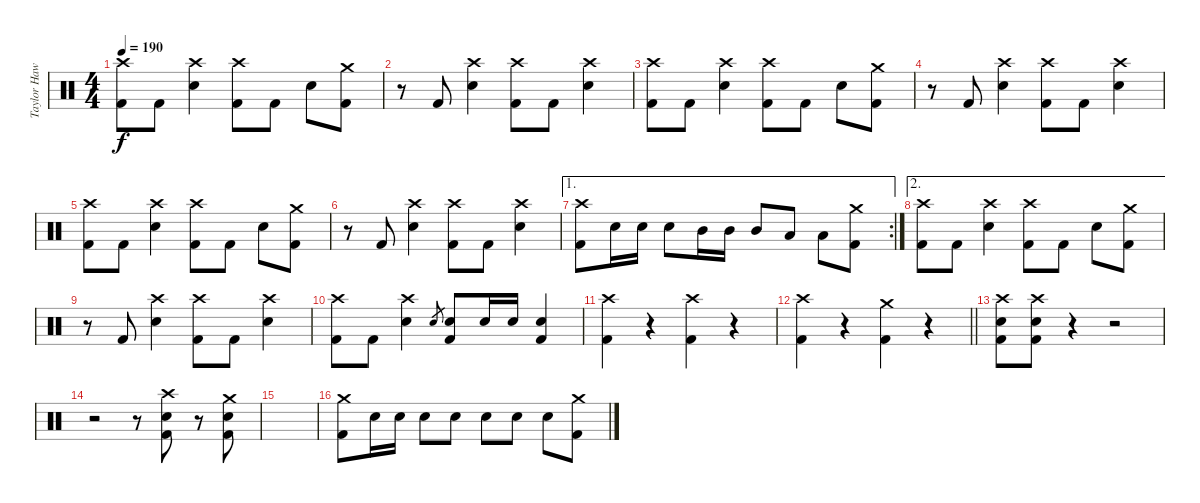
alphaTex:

\track ("Taylor Hawkins (Drums)" "Taylor Haw") {instrument percussion}
\staff {score}
\articulation defaults
\ts (4 4)
\tempo 190
\clef neutral
\ks c
("Crash high (hit)" "Kick (hit) 2").8{dy f} "Kick (hit) 2".8 ("Crash high (hit)" "Snare (hit) 2").4 ("Crash high (hit)" "Kick (hit) 2").8 "Kick (hit) 2".8 "Snare (hit) 2".8 ("Crash medium (hit)" "Kick (hit) 2").8 |
r.8 "Kick (hit) 2".8 ("Crash high (hit)" "Snare (hit) 2").4 ("Crash high (hit)" "Kick (hit) 2").8 "Kick (hit) 2".8 ("Crash high (hit)" "Snare (hit) 2").4 |
("Crash high (hit)" "Kick (hit) 2").8 "Kick (hit) 2".8 ("Crash high (hit)" "Snare (hit) 2").4 ("Crash high (hit)" "Kick (hit) 2").8 "Kick (hit) 2".8 "Snare (hit) 2".8 ("Crash medium (hit)" "Kick (hit) 2").8 |
r.8 "Kick (hit) 2".8 ("Crash high (hit)" "Snare (hit) 2").4 ("Crash high (hit)" "Kick (hit) 2").8 "Kick (hit) 2".8 ("Crash high (hit)" "Snare (hit) 2").4 |
("Crash high (hit)" "Kick (hit) 2").8 "Kick (hit) 2".8 ("Crash high (hit)" "Snare (hit) 2").4 ("Crash high (hit)" "Kick (hit) 2").8 "Kick (hit) 2".8 "Snare (hit) 2".8 ("Crash medium (hit)" "Kick (hit) 2").8 |
r.8 "Kick (hit) 2".8 ("Crash high (hit)" "Snare (hit) 2").4 ("Crash high (hit)" "Kick (hit) 2").8 "Kick (hit) 2".8 ("Crash high (hit)" "Snare (hit) 2").4 |
\ae 1
\rc 2
("Crash high (hit)" "Kick (hit) 2").8 "Snare (hit) 2".16 "Snare (hit) 2".16 "Snare (hit) 2".8 "Mid Tom (hit)".16 "Mid Tom (hit)".16 "Mid Tom (hit)".8 "Low Tom (hit)".8 "Low Floor Tom (hit)".8 ("Crash medium (hit)" "Kick (hit) 2").8 |
\ae 2
("Crash high (hit)" "Kick (hit) 2").8 "Kick (hit) 2".8 ("Crash high (hit)" "Snare (hit) 2").4 ("Crash high (hit)" "Kick (hit) 2").8 "Kick (hit) 2".8 "Snare (hit) 2".8 ("Crash medium (hit)" "Kick (hit) 2").8 |
r.8 "Kick (hit) 2".8 ("Crash high (hit)" "Snare (hit) 2").4 ("Crash high (hit)" "Kick (hit) 2").8 "Kick (hit) 2".8 ("Crash high (hit)" "Snare (hit) 2").4 |
("Crash high (hit)" "Kick (hit) 2").8 "Kick (hit) 2".8 ("Crash high (hit)" "Snare (hit) 2").4 "Snare (hit) 2".8{gr} ("Snare (hit) 2" "Kick (hit) 2").8 "Snare (hit) 2".16 "Snare (hit) 2".16 ("Snare (hit) 2" "Kick (hit) 2").4 |
("Crash high (hit)" "Kick (hit) 2").4 r.4 ("Crash high (hit)" "Kick (hit) 2").4 r.4 |
\barLineRight lightlight
("Crash high (hit)" "Kick (hit) 2").4 r.4 ("Crash medium (hit)" "Kick (hit) 2").4 r.4 |
("Crash high (hit)" "Snare (hit) 2" "Kick (hit) 2").8 ("Crash high (hit)" "Snare (hit) 2" "Kick (hit) 2").8 r.4 r.2 |
r.2 r.8 ("Crash high (hit)" "Snare (hit) 2" "Kick (hit) 2").8 r.8 ("Crash medium (hit)" "Snare (hit) 2" "Kick (hit) 2").8 |
|
("Crash medium (hit)" "Kick (hit) 2").8 "Snare (hit) 2".16 "Snare (hit) 2".16 "Snare (hit) 2".8 "Snare (hit) 2".8 "Snare (hit) 2".8 "Snare (hit) 2".8 "Snare (hit) 2".8 ("Crash medium (hit)" "Kick (hit) 2").8
